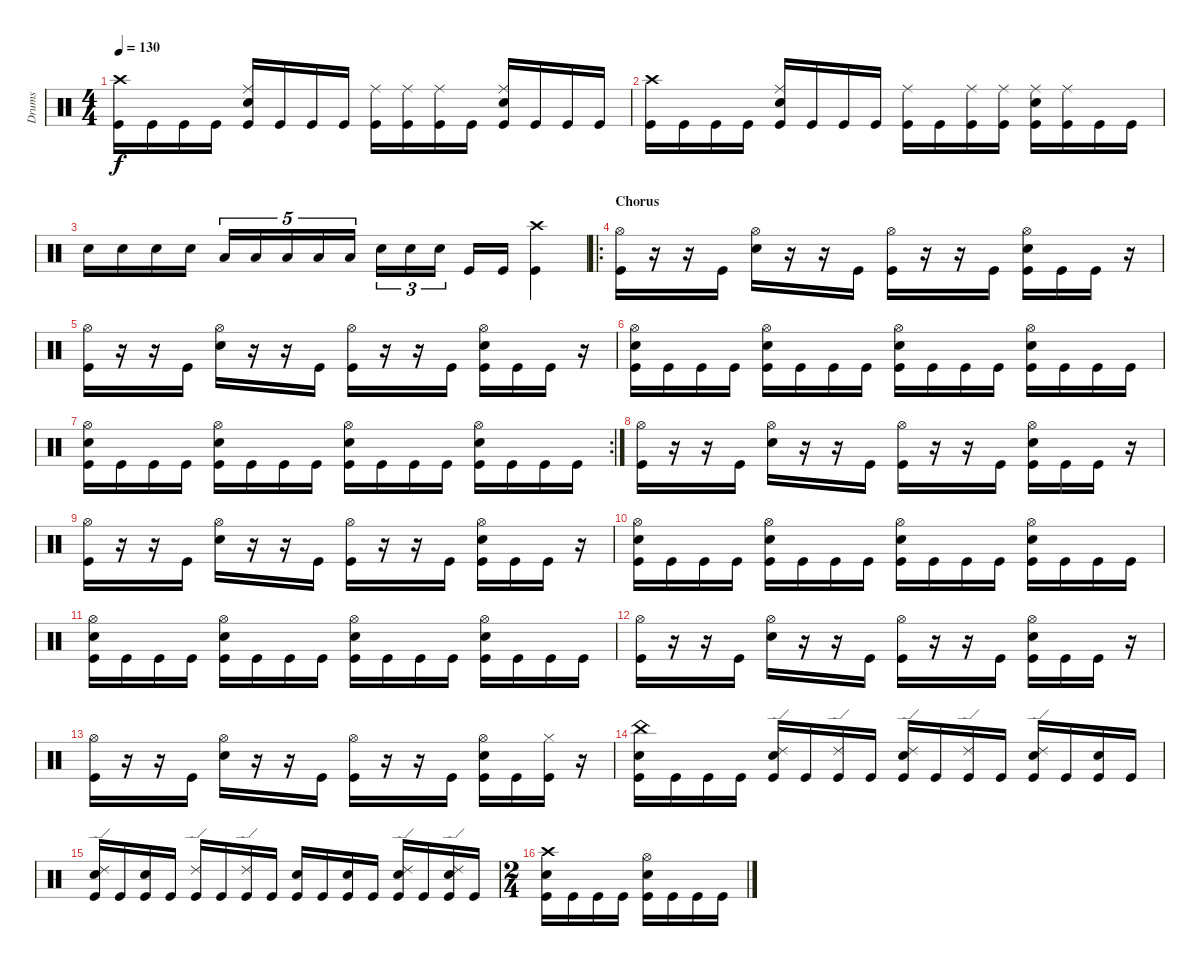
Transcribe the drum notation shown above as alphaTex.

\track ("Drums" "Drums") {instrument percussion}
\staff {score}
\articulation defaults
\ts (4 4)
\tempo 130
\clef neutral
\ks c
("Crash high (hit)" "Kick (hit)").16{dy f} "Kick (hit)".16 "Kick (hit)".16 "Kick (hit)".16 ("Ride (middle)" "Electric Snare (hit)" "Kick (hit)").16 "Kick (hit)".16 "Kick (hit)".16 "Kick (hit)".16 ("Ride (middle)" "Kick (hit)").16 ("Ride (middle)" "Kick (hit)").16 ("Ride (middle)" "Kick (hit)").16 "Kick (hit)".16 ("Ride (middle)" "Electric Snare (hit)" "Kick (hit)").16 "Kick (hit)".16 "Kick (hit)".16 "Kick (hit)".16 |
("Crash high (hit)" "Kick (hit)").16 "Kick (hit)".16 "Kick (hit)".16 "Kick (hit)".16 ("Ride (middle)" "Electric Snare (hit)" "Kick (hit)").16 "Kick (hit)".16 "Kick (hit)".16 "Kick (hit)".16 ("Ride (middle)" "Kick (hit)").16 "Kick (hit)".16 ("Ride (middle)" "Kick (hit)").16 ("Ride (middle)" "Kick (hit)").16 ("Ride (middle)" "Electric Snare (hit)" "Kick (hit)").16 ("Ride (middle)" "Kick (hit)").16 "Kick (hit)".16 "Kick (hit)".16 |
"Electric Snare (hit)".16 "Electric Snare (hit)".16 "Electric Snare (hit)".16 "Electric Snare (hit)".16 "Low Tom (hit)".16{tu (5 4)} "Low Tom (hit)".16{tu (5 4)} "Low Tom (hit)".16{tu (5 4)} "Low Tom (hit)".16{tu (5 4)} "Low Tom (hit)".16{tu (5 4)} "Electric Snare (hit)".16{tu (3 2)} "Electric Snare (hit)".16{tu (3 2)} "Electric Snare (hit)".16{tu (3 2)} "Kick (hit)".16 "Kick (hit)".16 ("Crash high (hit)" "Kick (hit)").4 |
\ro
\section ("" "Chorus")
("Hi-Hat (open)" "Kick (hit)").16 r.16 r.16 "Kick (hit)".16 ("Hi-Hat (open)" "Electric Snare (hit)").16 r.16 r.16 "Kick (hit)".16 ("Hi-Hat (open)" "Kick (hit)").16 r.16 r.16 "Kick (hit)".16 ("Hi-Hat (open)" "Electric Snare (hit)" "Kick (hit)").16 "Kick (hit)".16 "Kick (hit)".16 r.16 |
("Hi-Hat (open)" "Kick (hit)").16 r.16 r.16 "Kick (hit)".16 ("Hi-Hat (open)" "Electric Snare (hit)").16 r.16 r.16 "Kick (hit)".16 ("Hi-Hat (open)" "Kick (hit)").16 r.16 r.16 "Kick (hit)".16 ("Hi-Hat (open)" "Electric Snare (hit)" "Kick (hit)").16 "Kick (hit)".16 "Kick (hit)".16 r.16 |
("Hi-Hat (open)" "Electric Snare (hit)" "Kick (hit)").16 "Kick (hit)".16 "Kick (hit)".16 "Kick (hit)".16 ("Hi-Hat (open)" "Electric Snare (hit)" "Kick (hit)").16 "Kick (hit)".16 "Kick (hit)".16 "Kick (hit)".16 ("Hi-Hat (open)" "Electric Snare (hit)" "Kick (hit)").16 "Kick (hit)".16 "Kick (hit)".16 "Kick (hit)".16 ("Hi-Hat (open)" "Electric Snare (hit)" "Kick (hit)").16 "Kick (hit)".16 "Kick (hit)".16 "Kick (hit)".16 |
\rc 2
("Hi-Hat (open)" "Electric Snare (hit)" "Kick (hit)").16 "Kick (hit)".16 "Kick (hit)".16 "Kick (hit)".16 ("Hi-Hat (open)" "Electric Snare (hit)" "Kick (hit)").16 "Kick (hit)".16 "Kick (hit)".16 "Kick (hit)".16 ("Hi-Hat (open)" "Electric Snare (hit)" "Kick (hit)").16 "Kick (hit)".16 "Kick (hit)".16 "Kick (hit)".16 ("Hi-Hat (open)" "Electric Snare (hit)" "Kick (hit)").16 "Kick (hit)".16 "Kick (hit)".16 "Kick (hit)".16 |
("Hi-Hat (open)" "Kick (hit)").16 r.16 r.16 "Kick (hit)".16 ("Hi-Hat (open)" "Electric Snare (hit)").16 r.16 r.16 "Kick (hit)".16 ("Hi-Hat (open)" "Kick (hit)").16 r.16 r.16 "Kick (hit)".16 ("Hi-Hat (open)" "Electric Snare (hit)" "Kick (hit)").16 "Kick (hit)".16 "Kick (hit)".16 r.16 |
("Hi-Hat (open)" "Kick (hit)").16 r.16 r.16 "Kick (hit)".16 ("Hi-Hat (open)" "Electric Snare (hit)").16 r.16 r.16 "Kick (hit)".16 ("Hi-Hat (open)" "Kick (hit)").16 r.16 r.16 "Kick (hit)".16 ("Hi-Hat (open)" "Electric Snare (hit)" "Kick (hit)").16 "Kick (hit)".16 "Kick (hit)".16 r.16 |
("Hi-Hat (open)" "Electric Snare (hit)" "Kick (hit)").16 "Kick (hit)".16 "Kick (hit)".16 "Kick (hit)".16 ("Hi-Hat (open)" "Electric Snare (hit)" "Kick (hit)").16 "Kick (hit)".16 "Kick (hit)".16 "Kick (hit)".16 ("Hi-Hat (open)" "Electric Snare (hit)" "Kick (hit)").16 "Kick (hit)".16 "Kick (hit)".16 "Kick (hit)".16 ("Hi-Hat (open)" "Electric Snare (hit)" "Kick (hit)").16 "Kick (hit)".16 "Kick (hit)".16 "Kick (hit)".16 |
("Hi-Hat (open)" "Electric Snare (hit)" "Kick (hit)").16 "Kick (hit)".16 "Kick (hit)".16 "Kick (hit)".16 ("Hi-Hat (open)" "Electric Snare (hit)" "Kick (hit)").16 "Kick (hit)".16 "Kick (hit)".16 "Kick (hit)".16 ("Hi-Hat (open)" "Electric Snare (hit)" "Kick (hit)").16 "Kick (hit)".16 "Kick (hit)".16 "Kick (hit)".16 ("Hi-Hat (open)" "Electric Snare (hit)" "Kick (hit)").16 "Kick (hit)".16 "Kick (hit)".16 "Kick (hit)".16 |
("Hi-Hat (open)" "Kick (hit)").16 r.16 r.16 "Kick (hit)".16 ("Hi-Hat (open)" "Electric Snare (hit)").16 r.16 r.16 "Kick (hit)".16 ("Hi-Hat (open)" "Kick (hit)").16 r.16 r.16 "Kick (hit)".16 ("Hi-Hat (open)" "Electric Snare (hit)" "Kick (hit)").16 "Kick (hit)".16 "Kick (hit)".16 r.16 |
("Hi-Hat (open)" "Kick (hit)").16 r.16 r.16 "Kick (hit)".16 ("Hi-Hat (open)" "Electric Snare (hit)").16 r.16 r.16 "Kick (hit)".16 ("Hi-Hat (open)" "Kick (hit)").16 r.16 r.16 "Kick (hit)".16 ("Hi-Hat (open)" "Electric Snare (hit)" "Kick (hit)").16 "Kick (hit)".16 ("Hi-Hat (closed)" "Kick (hit)").16 r.16 |
("China (hit)" "Electric Snare (hit)" "Kick (hit)").16 "Kick (hit)".16 "Kick (hit)".16 "Kick (hit)".16 ("Ride (edge) 2" "Electric Snare (hit)" "Kick (hit)").16 "Kick (hit)".16 ("Ride (edge) 2" "Kick (hit)").16 "Kick (hit)".16 ("Ride (edge) 2" "Electric Snare (hit)" "Kick (hit)").16 "Kick (hit)".16 ("Ride (edge) 2" "Kick (hit)").16 "Kick (hit)".16 ("Ride (edge) 2" "Electric Snare (hit)" "Kick (hit)").16 "Kick (hit)".16 ("Electric Snare (hit)" "Kick (hit)").16 "Kick (hit)".16 |
("Ride (edge) 2" "Electric Snare (hit)" "Kick (hit)").16 "Kick (hit)".16 ("Electric Snare (hit)" "Kick (hit)").16 "Kick (hit)".16 ("Ride (edge) 2" "Kick (hit)").16 "Kick (hit)".16 ("Ride (edge) 2" "Kick (hit)").16 "Kick (hit)".16 ("Electric Snare (hit)" "Kick (hit)").16 "Kick (hit)".16 ("Electric Snare (hit)" "Kick (hit)").16 "Kick (hit)".16 ("Ride (edge) 2" "Electric Snare (hit)" "Kick (hit)").16 "Kick (hit)".16 ("Ride (edge) 2" "Electric Snare (hit)" "Kick (hit)").16 "Kick (hit)".16 |
\ts (2 4)
("Crash high (hit)" "Electric Snare (hit)" "Kick (hit)").16 "Kick (hit)".16 "Kick (hit)".16 "Kick (hit)".16 ("Hi-Hat (open)" "Electric Snare (hit)" "Kick (hit)").16 "Kick (hit)".16 "Kick (hit)".16 "Kick (hit)".16
